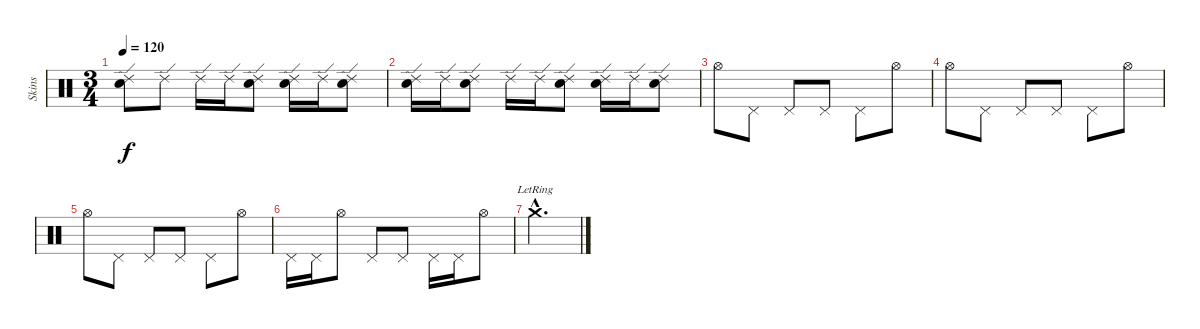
\track ("Skins" "Skins") {instrument percussion}
\staff {score}
\articulation defaults
\ts (3 4)
\tempo 120
\clef neutral
\ks c
("Snare (hit) 2" "Ride (edge) 2").8{dy f} "Ride (edge) 2".8 "Ride (edge) 2".16 "Ride (edge) 2".16 ("Snare (hit) 2" "Ride (edge) 2").8 ("Snare (hit) 2" "Ride (edge) 2").16 "Ride (edge) 2".16 ("Snare (hit) 2" "Ride (edge) 2").8 |
("Snare (hit) 2" "Ride (edge) 2").16 "Ride (edge) 2".16 ("Snare (hit) 2" "Ride (edge) 2").8 "Ride (edge) 2".16 "Ride (edge) 2".16 ("Snare (hit) 2" "Ride (edge) 2").8 ("Snare (hit) 2" "Ride (edge) 2").16 "Ride (edge) 2".16 ("Snare (hit) 2" "Ride (edge) 2").8 |
"Hi-Hat (open)".8 "Pedal Hi-Hat (hit)".8 "Pedal Hi-Hat (hit)".8 "Pedal Hi-Hat (hit)".8 "Pedal Hi-Hat (hit)".8 "Hi-Hat (open)".8 |
"Hi-Hat (open)".8 "Pedal Hi-Hat (hit)".8 "Pedal Hi-Hat (hit)".8 "Pedal Hi-Hat (hit)".8 "Pedal Hi-Hat (hit)".8 "Hi-Hat (open)".8 |
"Hi-Hat (open)".8 "Pedal Hi-Hat (hit)".8 "Pedal Hi-Hat (hit)".8 "Pedal Hi-Hat (hit)".8 "Pedal Hi-Hat (hit)".8 "Hi-Hat (open)".8 |
"Pedal Hi-Hat (hit)".16 "Pedal Hi-Hat (hit)".16 "Hi-Hat (open)".8 "Pedal Hi-Hat (hit)".8 "Pedal Hi-Hat (hit)".8 "Pedal Hi-Hat (hit)".16 "Pedal Hi-Hat (hit)".16 "Hi-Hat (open)".8 |
"Crash medium (hit)"{hac lr}.2{d}
